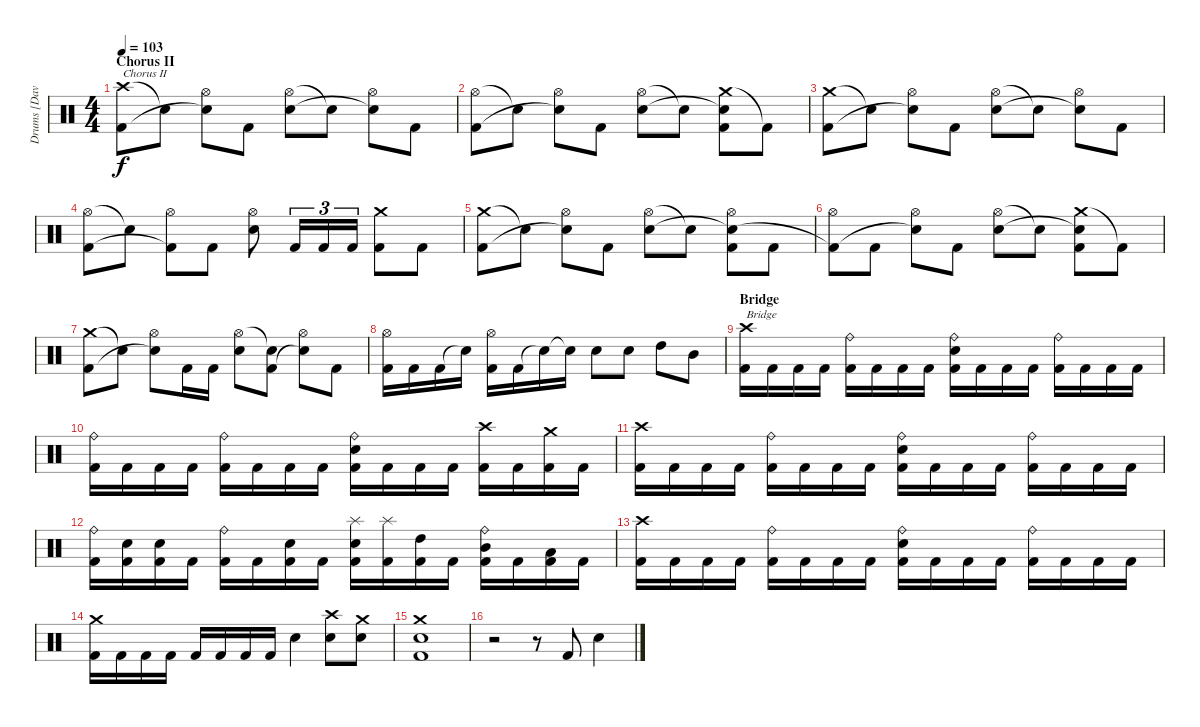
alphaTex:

\track ("Drums [Dave Culross]" "Drums [Dav") {instrument percussion}
\staff {score}
\articulation defaults
\ts (4 4)
\section ("" "Chorus II")
\tempo 103
\clef neutral
\ks c
("Crash high (hit)" "Kick (hit) 2").8{txt "Chorus II" dy f} "Snare (hit)"{t}.8 ("Hi-Hat (open)" "Snare (hit)"{t}).8 "Kick (hit) 2".8 ("Hi-Hat (open)" "Electric Snare (hit)").8 "Snare (hit)"{t}.8 ("Hi-Hat (open)" "Snare (hit)"{t}).8 "Kick (hit) 2".8 |
("Hi-Hat (open)" "Kick (hit) 2").8 "Snare (hit)"{t}.8 ("Hi-Hat (open)" "Snare (hit)"{t}).8 "Kick (hit) 2".8 ("Hi-Hat (open)" "Electric Snare (hit)").8 "Snare (hit)"{t}.8 ("Crash medium (hit)" "Snare (hit)"{t} "Kick (hit) 2").8 "Kick (hit) 2"{t}.8 |
("Crash medium (hit)" "Kick (hit) 2").8 "Snare (hit)"{t}.8 ("Hi-Hat (open)" "Snare (hit)"{t}).8 "Kick (hit) 2".8 ("Hi-Hat (open)" "Electric Snare (hit)").8 "Snare (hit)"{t}.8 ("Hi-Hat (open)" "Snare (hit)"{t}).8 "Kick (hit) 2".8 |
("Hi-Hat (open)" "Kick (hit) 2").8 "Snare (hit)"{t}.8 ("Hi-Hat (open)" "Kick (hit) 2"{t}).8 "Kick (hit) 2".8 ("Hi-Hat (open)" "Electric Snare (hit)").8 "Kick (hit) 2".16{tu (3 2)} "Kick (hit) 2".16{tu (3 2)} "Kick (hit) 2".16{tu (3 2)} ("Crash medium (hit)" "Kick (hit) 2").8 "Kick (hit) 2".8 |
("Crash medium (hit)" "Kick (hit) 2").8 "Snare (hit)"{t}.8 ("Hi-Hat (open)" "Snare (hit)"{t}).8 "Kick (hit) 2".8 ("Hi-Hat (open)" "Electric Snare (hit)").8 "Snare (hit)"{t}.8 ("Hi-Hat (open)" "Snare (hit)"{t} "Kick (hit) 2").8 "Kick (hit) 2".8 |
("Hi-Hat (open)" "Kick (hit) 2"{t}).8 "Kick (hit) 2".8 ("Hi-Hat (open)" "Snare (hit)"{t}).8 "Kick (hit) 2".8 ("Hi-Hat (open)" "Electric Snare (hit)").8 "Snare (hit)"{t}.8 ("Crash medium (hit)" "Snare (hit)"{t} "Kick (hit) 2").8 "Kick (hit) 2"{t}.8 |
("Crash medium (hit)" "Kick (hit) 2").8 "Snare (hit)"{t}.8 ("Hi-Hat (open)" "Snare (hit)"{t}).8 "Kick (hit) 2".16 "Kick (hit) 2".16 ("Hi-Hat (open)" "Electric Snare (hit)").8 ("Snare (hit)"{t} "Kick (hit) 2").8 ("Hi-Hat (open)" "Snare (hit)"{t}).8 "Kick (hit) 2".8 |
("Hi-Hat (open)" "Kick (hit) 2").16 "Kick (hit) 2".16 "Kick (hit) 2".16 "Snare (hit)"{t}.16 ("Hi-Hat (open)" "Kick (hit) 2").16 "Kick (hit) 2".16 "Snare (hit)"{t}.16 "Snare (hit)"{t}.16 "Electric Snare (hit)".8 "Electric Snare (hit)".8 "High Tom (hit)".8 "Mid Tom (hit)".8 |
\section ("" "Bridge")
("Crash high (hit)" "Kick (hit) 2").16{txt "Bridge"} "Kick (hit) 2".16 "Kick (hit) 2".16 "Kick (hit) 2".16 ("Ride (bell)" "Kick (hit) 2").16 "Kick (hit) 2".16 "Kick (hit) 2".16 "Kick (hit) 2".16 ("Ride (bell)" "Electric Snare (hit)" "Kick (hit) 2").16 "Kick (hit) 2".16 "Kick (hit) 2".16 "Kick (hit) 2".16 ("Ride (bell)" "Kick (hit) 2").16 "Kick (hit) 2".16 "Kick (hit) 2".16 "Kick (hit) 2".16 |
("Ride (bell)" "Kick (hit) 2").16 "Kick (hit) 2".16 "Kick (hit) 2".16 "Kick (hit) 2".16 ("Ride (bell)" "Kick (hit) 2").16 "Kick (hit) 2".16 "Kick (hit) 2".16 "Kick (hit) 2".16 ("Ride (bell)" "Electric Snare (hit)" "Kick (hit) 2").16 "Kick (hit) 2".16 "Kick (hit) 2".16 "Kick (hit) 2".16 ("Crash high (hit)" "Kick (hit) 2").16 "Kick (hit) 2".16 ("Crash medium (hit)" "Kick (hit) 2").16 "Kick (hit) 2".16 |
("Crash high (hit)" "Kick (hit) 2").16 "Kick (hit) 2".16 "Kick (hit) 2".16 "Kick (hit) 2".16 ("Ride (bell)" "Kick (hit) 2").16 "Kick (hit) 2".16 "Kick (hit) 2".16 "Kick (hit) 2".16 ("Ride (bell)" "Electric Snare (hit)" "Kick (hit) 2").16 "Kick (hit) 2".16 "Kick (hit) 2".16 "Kick (hit) 2".16 ("Ride (bell)" "Kick (hit) 2").16 "Kick (hit) 2".16 "Kick (hit) 2".16 "Kick (hit) 2".16 |
("Ride (bell)" "Kick (hit) 2").16 ("Electric Snare (hit)" "Kick (hit) 2").16 ("Electric Snare (hit)" "Kick (hit) 2").16 "Kick (hit) 2".16 ("Ride (bell)" "Kick (hit) 2").16 "Kick (hit) 2".16 ("Electric Snare (hit)" "Kick (hit) 2").16 "Kick (hit) 2".16 ("Splash (hit)" "Electric Snare (hit)" "Kick (hit) 2").16 ("Splash (hit)" "Kick (hit) 2").16 ("High Tom (hit)" "Kick (hit) 2").16 "Kick (hit) 2".16 ("Ride (bell)" "Mid Tom (hit)" "Kick (hit) 2").16 "Kick (hit) 2".16 ("Low Tom (hit)" "Kick (hit) 2").16 "Kick (hit) 2".16 |
("Crash high (hit)" "Kick (hit) 2").16 "Kick (hit) 2".16 "Kick (hit) 2".16 "Kick (hit) 2".16 ("Ride (bell)" "Kick (hit) 2").16 "Kick (hit) 2".16 "Kick (hit) 2".16 "Kick (hit) 2".16 ("Ride (bell)" "Electric Snare (hit)" "Kick (hit) 2").16 "Kick (hit) 2".16 "Kick (hit) 2".16 "Kick (hit) 2".16 ("Ride (bell)" "Kick (hit) 2").16 "Kick (hit) 2".16 "Kick (hit) 2".16 "Kick (hit) 2".16 |
("Crash medium (hit)" "Kick (hit) 2").16 "Kick (hit) 2".16 "Kick (hit) 2".16 "Kick (hit) 2".16 "Kick (hit) 2".16 "Kick (hit) 2".16 "Kick (hit) 2".16 "Kick (hit) 2".16 "Electric Snare (hit)".4 ("Crash high (hit)" "Electric Snare (hit)").8 ("Crash medium (hit)" "Electric Snare (hit)").8 |
("Crash medium (hit)" "Electric Snare (hit)" "Kick (hit) 2").1 |
r.2 r.8 "Kick (hit) 2".8 "Electric Snare (hit)".4
